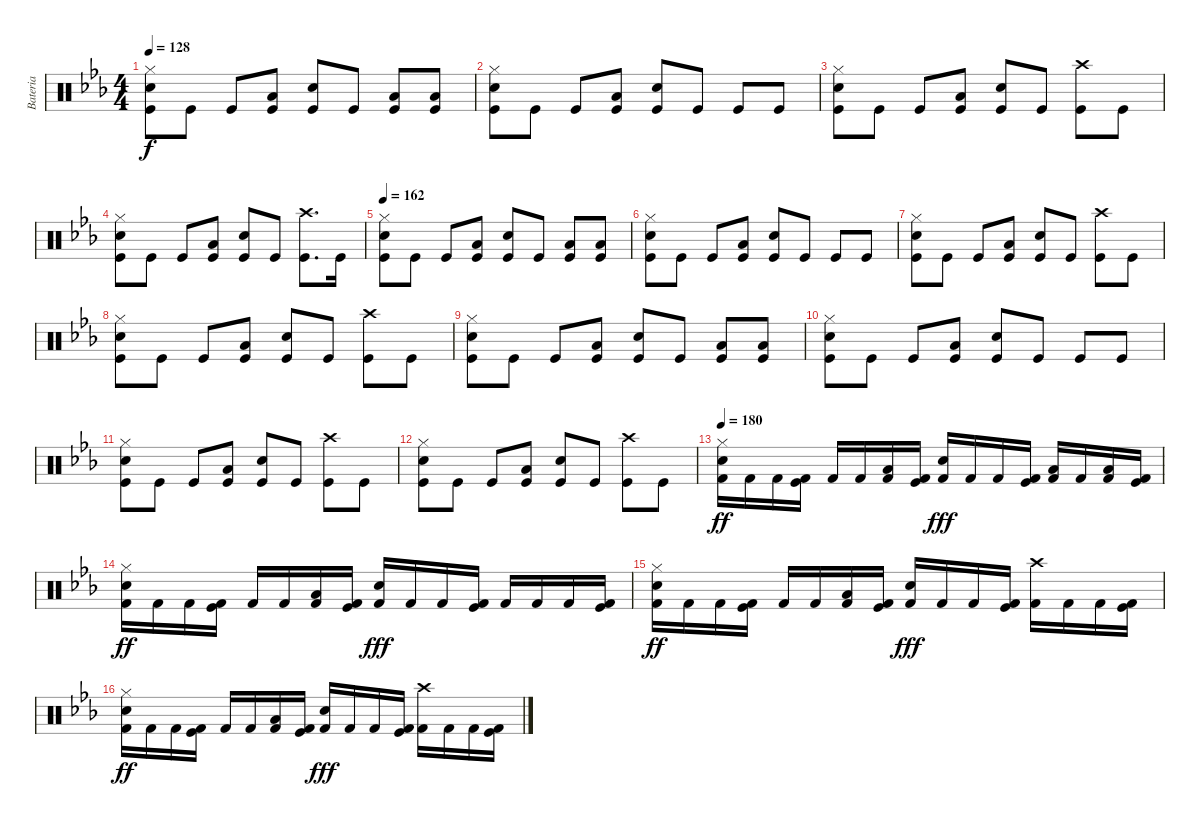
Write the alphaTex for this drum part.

\track ("Bateria" "Bateria") {instrument percussion}
\staff {score}
\articulation defaults
\ts (4 4)
\tempo 128
\clef neutral
\ks eb
("Hi-Hat (closed)" "Snare (hit) 2" "Kick (hit)").8{dy f} "Kick (hit)".8 "Kick (hit)".8 ("Low Tom (hit)" "Kick (hit)").8 ("Snare (hit) 2" "Kick (hit)").8 "Kick (hit)".8 ("Low Tom (hit)" "Kick (hit)").8 ("Low Tom (hit)" "Kick (hit)").8 |
("Hi-Hat (closed)" "Snare (hit) 2" "Kick (hit)").8 "Kick (hit)".8 "Kick (hit)".8 ("Low Tom (hit)" "Kick (hit)").8 ("Snare (hit) 2" "Kick (hit)").8 "Kick (hit)".8 "Kick (hit)".8 "Kick (hit)".8 |
("Hi-Hat (closed)" "Snare (hit) 2" "Kick (hit)").8 "Kick (hit)".8 "Kick (hit)".8 ("Low Tom (hit)" "Kick (hit)").8 ("Snare (hit) 2" "Kick (hit)").8 "Kick (hit)".8 ("Crash high (hit)" "Kick (hit)").8 "Kick (hit)".8 |
("Hi-Hat (closed)" "Snare (hit) 2" "Kick (hit)").8 "Kick (hit)".8 "Kick (hit)".8 ("Low Tom (hit)" "Kick (hit)").8 ("Snare (hit) 2" "Kick (hit)").8 "Kick (hit)".8 ("Crash high (hit)" "Kick (hit)").8{d} "Kick (hit)".16 |
\tempo 162
("Hi-Hat (closed)" "Snare (hit) 2" "Kick (hit)").8 "Kick (hit)".8 "Kick (hit)".8 ("Low Tom (hit)" "Kick (hit)").8 ("Snare (hit) 2" "Kick (hit)").8 "Kick (hit)".8 ("Low Tom (hit)" "Kick (hit)").8 ("Low Tom (hit)" "Kick (hit)").8 |
("Hi-Hat (closed)" "Snare (hit) 2" "Kick (hit)").8 "Kick (hit)".8 "Kick (hit)".8 ("Low Tom (hit)" "Kick (hit)").8 ("Snare (hit) 2" "Kick (hit)").8 "Kick (hit)".8 "Kick (hit)".8 "Kick (hit)".8 |
("Hi-Hat (closed)" "Snare (hit) 2" "Kick (hit)").8 "Kick (hit)".8 "Kick (hit)".8 ("Low Tom (hit)" "Kick (hit)").8 ("Snare (hit) 2" "Kick (hit)").8 "Kick (hit)".8 ("Crash high (hit)" "Kick (hit)").8 "Kick (hit)".8 |
("Hi-Hat (closed)" "Snare (hit) 2" "Kick (hit)").8 "Kick (hit)".8 "Kick (hit)".8 ("Low Tom (hit)" "Kick (hit)").8 ("Snare (hit) 2" "Kick (hit)").8 "Kick (hit)".8 ("Crash high (hit)" "Kick (hit)").8 "Kick (hit)".8 |
("Hi-Hat (closed)" "Snare (hit) 2" "Kick (hit)").8 "Kick (hit)".8 "Kick (hit)".8 ("Low Tom (hit)" "Kick (hit)").8 ("Snare (hit) 2" "Kick (hit)").8 "Kick (hit)".8 ("Low Tom (hit)" "Kick (hit)").8 ("Low Tom (hit)" "Kick (hit)").8 |
("Hi-Hat (closed)" "Snare (hit) 2" "Kick (hit)").8 "Kick (hit)".8 "Kick (hit)".8 ("Low Tom (hit)" "Kick (hit)").8 ("Snare (hit) 2" "Kick (hit)").8 "Kick (hit)".8 "Kick (hit)".8 "Kick (hit)".8 |
("Hi-Hat (closed)" "Snare (hit) 2" "Kick (hit)").8 "Kick (hit)".8 "Kick (hit)".8 ("Low Tom (hit)" "Kick (hit)").8 ("Snare (hit) 2" "Kick (hit)").8 "Kick (hit)".8 ("Crash high (hit)" "Kick (hit)").8 "Kick (hit)".8 |
("Hi-Hat (closed)" "Snare (hit) 2" "Kick (hit)").8 "Kick (hit)".8 "Kick (hit)".8 ("Low Tom (hit)" "Kick (hit)").8 ("Snare (hit) 2" "Kick (hit)").8 "Kick (hit)".8 ("Crash high (hit)" "Kick (hit)").8 "Kick (hit)".8 |
\tempo 180
("Hi-Hat (closed)" "Snare (hit) 2" "Kick (hit) 2").16{dy ff} "Kick (hit) 2".16 "Kick (hit) 2".16 ("Kick (hit)" "Kick (hit) 2").16 "Kick (hit) 2".16 "Kick (hit) 2".16 ("Low Tom (hit)" "Kick (hit) 2").16 ("Kick (hit)" "Kick (hit) 2").16 ("Snare (hit) 2" "Kick (hit) 2").16{dy fff} "Kick (hit) 2".16 "Kick (hit) 2".16 ("Kick (hit)" "Kick (hit) 2").16 ("Low Tom (hit)" "Kick (hit) 2").16 "Kick (hit) 2".16 ("Low Tom (hit)" "Kick (hit) 2").16 ("Kick (hit)" "Kick (hit) 2").16 |
("Hi-Hat (closed)" "Snare (hit) 2" "Kick (hit) 2").16{dy ff} "Kick (hit) 2".16 "Kick (hit) 2".16 ("Kick (hit)" "Kick (hit) 2").16 "Kick (hit) 2".16 "Kick (hit) 2".16 ("Low Tom (hit)" "Kick (hit) 2").16 ("Kick (hit)" "Kick (hit) 2").16 ("Snare (hit) 2" "Kick (hit) 2").16{dy fff} "Kick (hit) 2".16 "Kick (hit) 2".16 ("Kick (hit)" "Kick (hit) 2").16 "Kick (hit) 2".16 "Kick (hit) 2".16 "Kick (hit) 2".16 ("Kick (hit)" "Kick (hit) 2").16 |
("Hi-Hat (closed)" "Snare (hit) 2" "Kick (hit) 2").16{dy ff} "Kick (hit) 2".16 "Kick (hit) 2".16 ("Kick (hit)" "Kick (hit) 2").16 "Kick (hit) 2".16 "Kick (hit) 2".16 ("Low Tom (hit)" "Kick (hit) 2").16 ("Kick (hit)" "Kick (hit) 2").16 ("Snare (hit) 2" "Kick (hit) 2").16{dy fff} "Kick (hit) 2".16 "Kick (hit) 2".16 ("Kick (hit)" "Kick (hit) 2").16 ("Crash high (hit)" "Kick (hit) 2").16 "Kick (hit) 2".16 "Kick (hit) 2".16 ("Kick (hit)" "Kick (hit) 2").16 |
("Hi-Hat (closed)" "Snare (hit) 2" "Kick (hit) 2").16{dy ff} "Kick (hit) 2".16 "Kick (hit) 2".16 ("Kick (hit)" "Kick (hit) 2").16 "Kick (hit) 2".16 "Kick (hit) 2".16 ("Low Tom (hit)" "Kick (hit) 2").16 ("Kick (hit)" "Kick (hit) 2").16 ("Snare (hit) 2" "Kick (hit) 2").16{dy fff} "Kick (hit) 2".16 "Kick (hit) 2".16 ("Kick (hit)" "Kick (hit) 2").16 ("Crash high (hit)" "Kick (hit) 2").16 "Kick (hit) 2".16 "Kick (hit) 2".16 ("Kick (hit)" "Kick (hit) 2").16
